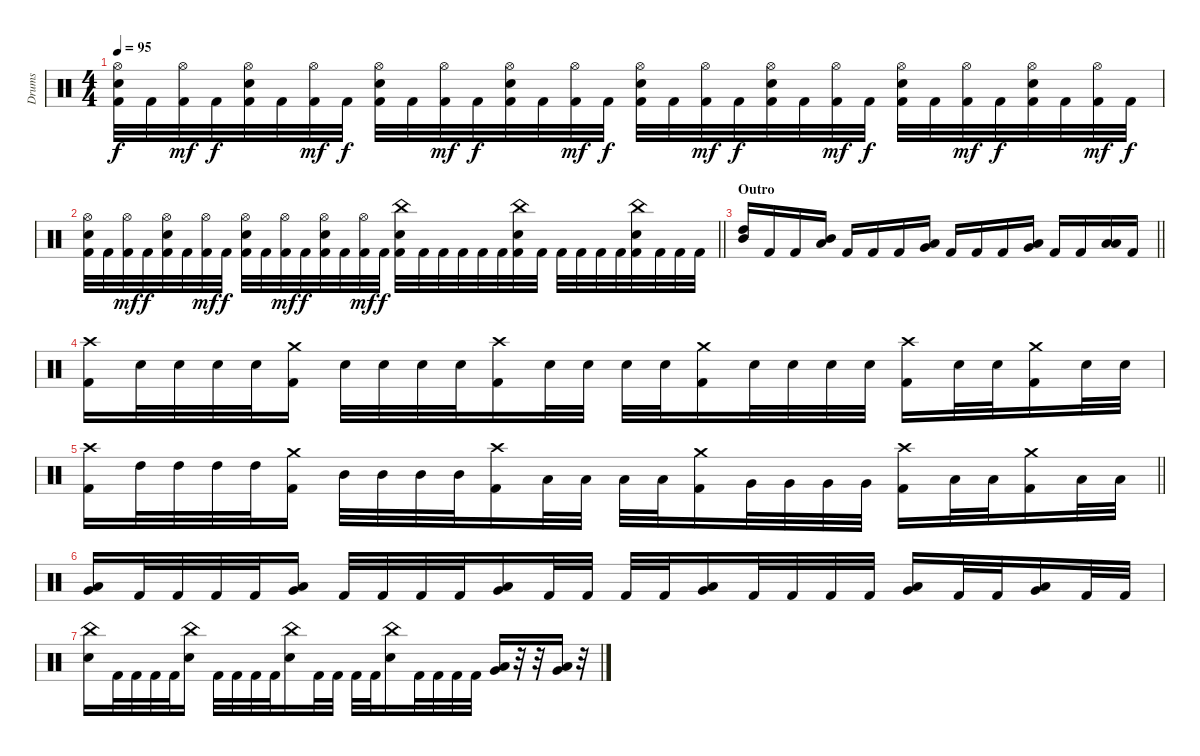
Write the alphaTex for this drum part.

\track ("Drums" "Drums") {instrument percussion}
\staff {score}
\articulation defaults
\ts (4 4)
\tempo 95
\clef neutral
\ks c
("Hi-Hat (open)" "Snare (hit) 2" "Kick (hit) 2").32{dy f} "Kick (hit) 2".32 ("Hi-Hat (open)" "Kick (hit) 2").32{dy mf} "Kick (hit) 2".32{dy f} ("Hi-Hat (open)" "Snare (hit) 2" "Kick (hit) 2").32 "Kick (hit) 2".32 ("Hi-Hat (open)" "Kick (hit) 2").32{dy mf} "Kick (hit) 2".32{dy f} ("Hi-Hat (open)" "Snare (hit) 2" "Kick (hit) 2").32 "Kick (hit) 2".32 ("Hi-Hat (open)" "Kick (hit) 2").32{dy mf} "Kick (hit) 2".32{dy f} ("Hi-Hat (open)" "Snare (hit) 2" "Kick (hit) 2").32 "Kick (hit) 2".32 ("Hi-Hat (open)" "Kick (hit) 2").32{dy mf} "Kick (hit) 2".32{dy f} ("Hi-Hat (open)" "Snare (hit) 2" "Kick (hit) 2").32 "Kick (hit) 2".32 ("Hi-Hat (open)" "Kick (hit) 2").32{dy mf} "Kick (hit) 2".32{dy f} ("Hi-Hat (open)" "Snare (hit) 2" "Kick (hit) 2").32 "Kick (hit) 2".32 ("Hi-Hat (open)" "Kick (hit) 2").32{dy mf} "Kick (hit) 2".32{dy f} ("Hi-Hat (open)" "Snare (hit) 2" "Kick (hit) 2").32 "Kick (hit) 2".32 ("Hi-Hat (open)" "Kick (hit) 2").32{dy mf} "Kick (hit) 2".32{dy f} ("Hi-Hat (open)" "Snare (hit) 2" "Kick (hit) 2").32 "Kick (hit) 2".32 ("Hi-Hat (open)" "Kick (hit) 2").32{dy mf} "Kick (hit) 2".32{dy f} |
\barLineRight lightlight
("Hi-Hat (open)" "Snare (hit) 2" "Kick (hit) 2").32 "Kick (hit) 2".32 ("Hi-Hat (open)" "Kick (hit) 2").32{dy mf} "Kick (hit) 2".32{dy f} ("Hi-Hat (open)" "Snare (hit) 2" "Kick (hit) 2").32 "Kick (hit) 2".32 ("Hi-Hat (open)" "Kick (hit) 2").32{dy mf} "Kick (hit) 2".32{dy f} ("Hi-Hat (open)" "Snare (hit) 2" "Kick (hit) 2").32 "Kick (hit) 2".32 ("Hi-Hat (open)" "Kick (hit) 2").32{dy mf} "Kick (hit) 2".32{dy f} ("Hi-Hat (open)" "Snare (hit) 2" "Kick (hit) 2").32 "Kick (hit) 2".32 ("Hi-Hat (open)" "Kick (hit) 2").32{dy mf} "Kick (hit) 2".32{dy f} ("China (hit)" "Snare (hit) 2" "Kick (hit) 2").32 "Kick (hit) 2".32 "Kick (hit) 2".32 "Kick (hit) 2".32 "Kick (hit) 2".32 "Kick (hit) 2".32 ("China (hit)" "Snare (hit) 2" "Kick (hit) 2").32 "Kick (hit) 2".32 "Kick (hit) 2".32 "Kick (hit) 2".32 "Kick (hit) 2".32 "Kick (hit) 2".32 ("China (hit)" "Snare (hit) 2" "Kick (hit) 2").32 "Kick (hit) 2".32 "Kick (hit) 2".32 "Kick (hit) 2".32 |
\section ("" "Outro")
\barLineRight lightlight
("High Tom (hit)" "Mid Tom (hit)").16 "Kick (hit) 2".16 "Kick (hit) 2".16 ("Mid Tom (hit)" "Low Tom (hit)").16 "Kick (hit) 2".16 "Kick (hit) 2".16 "Kick (hit) 2".16 ("Low Tom (hit)" "Very Low Tom (hit)").16 "Kick (hit) 2".16 "Kick (hit) 2".16 "Kick (hit) 2".16 ("Very Low Tom (hit)" "Low Floor Tom (hit)").16 "Kick (hit) 2".16 "Kick (hit) 2".16 ("Low Floor Tom (hit)" "Low Floor Tom (hit)").16 "Kick (hit) 2".16 |
("Crash high (hit)" "Kick (hit) 2").16 "Snare (hit) 2".32 "Snare (hit) 2".32 "Snare (hit) 2".32 "Snare (hit) 2".32 ("Crash medium (hit)" "Kick (hit) 2").16 "Snare (hit) 2".32 "Snare (hit) 2".32 "Snare (hit) 2".32 "Snare (hit) 2".32 ("Crash high (hit)" "Kick (hit) 2").16 "Snare (hit) 2".32 "Snare (hit) 2".32 "Snare (hit) 2".32 "Snare (hit) 2".32 ("Crash medium (hit)" "Kick (hit) 2").16 "Snare (hit) 2".32 "Snare (hit) 2".32 "Snare (hit) 2".32 "Snare (hit) 2".32 ("Crash high (hit)" "Kick (hit) 2").16 "Snare (hit) 2".32 "Snare (hit) 2".32 ("Crash medium (hit)" "Kick (hit) 2").16 "Snare (hit) 2".32 "Snare (hit) 2".32 |
\barLineRight lightlight
("Crash high (hit)" "Kick (hit) 2").16 "High Tom (hit)".32 "High Tom (hit)".32 "High Tom (hit)".32 "High Tom (hit)".32 ("Crash medium (hit)" "Kick (hit) 2").16 "Mid Tom (hit)".32 "Mid Tom (hit)".32 "Mid Tom (hit)".32 "Mid Tom (hit)".32 ("Crash high (hit)" "Kick (hit) 2").16 "Low Tom (hit)".32 "Low Tom (hit)".32 "Low Tom (hit)".32 "Low Tom (hit)".32 ("Crash medium (hit)" "Kick (hit) 2").16 "Very Low Tom (hit)".32 "Very Low Tom (hit)".32 "Very Low Tom (hit)".32 "Very Low Tom (hit)".32 ("Crash high (hit)" "Kick (hit) 2").16 "Low Floor Tom (hit)".32 "Low Floor Tom (hit)".32 ("Crash medium (hit)" "Kick (hit) 2").16 "Low Floor Tom (hit)".32 "Low Floor Tom (hit)".32 |
("Very Low Tom (hit)" "Low Floor Tom (hit)").16 "Kick (hit) 2".32 "Kick (hit) 2".32 "Kick (hit) 2".32 "Kick (hit) 2".32 ("Very Low Tom (hit)" "Low Floor Tom (hit)").16 "Kick (hit) 2".32 "Kick (hit) 2".32 "Kick (hit) 2".32 "Kick (hit) 2".32 ("Very Low Tom (hit)" "Low Floor Tom (hit)").16 "Kick (hit) 2".32 "Kick (hit) 2".32 "Kick (hit) 2".32 "Kick (hit) 2".32 ("Very Low Tom (hit)" "Low Floor Tom (hit)").16 "Kick (hit) 2".32 "Kick (hit) 2".32 "Kick (hit) 2".32 "Kick (hit) 2".32 ("Very Low Tom (hit)" "Low Floor Tom (hit)").16 "Kick (hit) 2".32 "Kick (hit) 2".32 ("Very Low Tom (hit)" "Low Floor Tom (hit)").16 "Kick (hit) 2".32 "Kick (hit) 2".32 |
("China (hit)" "Snare (hit) 2").16 "Kick (hit) 2".32 "Kick (hit) 2".32 "Kick (hit) 2".32 "Kick (hit) 2".32 ("China (hit)" "Snare (hit) 2").16 "Kick (hit) 2".32 "Kick (hit) 2".32 "Kick (hit) 2".32 "Kick (hit) 2".32 ("China (hit)" "Snare (hit) 2").16 "Kick (hit) 2".32 "Kick (hit) 2".32 "Kick (hit) 2".32 "Kick (hit) 2".32 ("China (hit)" "Snare (hit) 2").16 "Kick (hit) 2".32 "Kick (hit) 2".32 "Kick (hit) 2".32 "Kick (hit) 2".32 ("Very Low Tom (hit)" "Low Floor Tom (hit)").16 r.32 r.32 ("Very Low Tom (hit)" "Low Floor Tom (hit)").16 r.32
